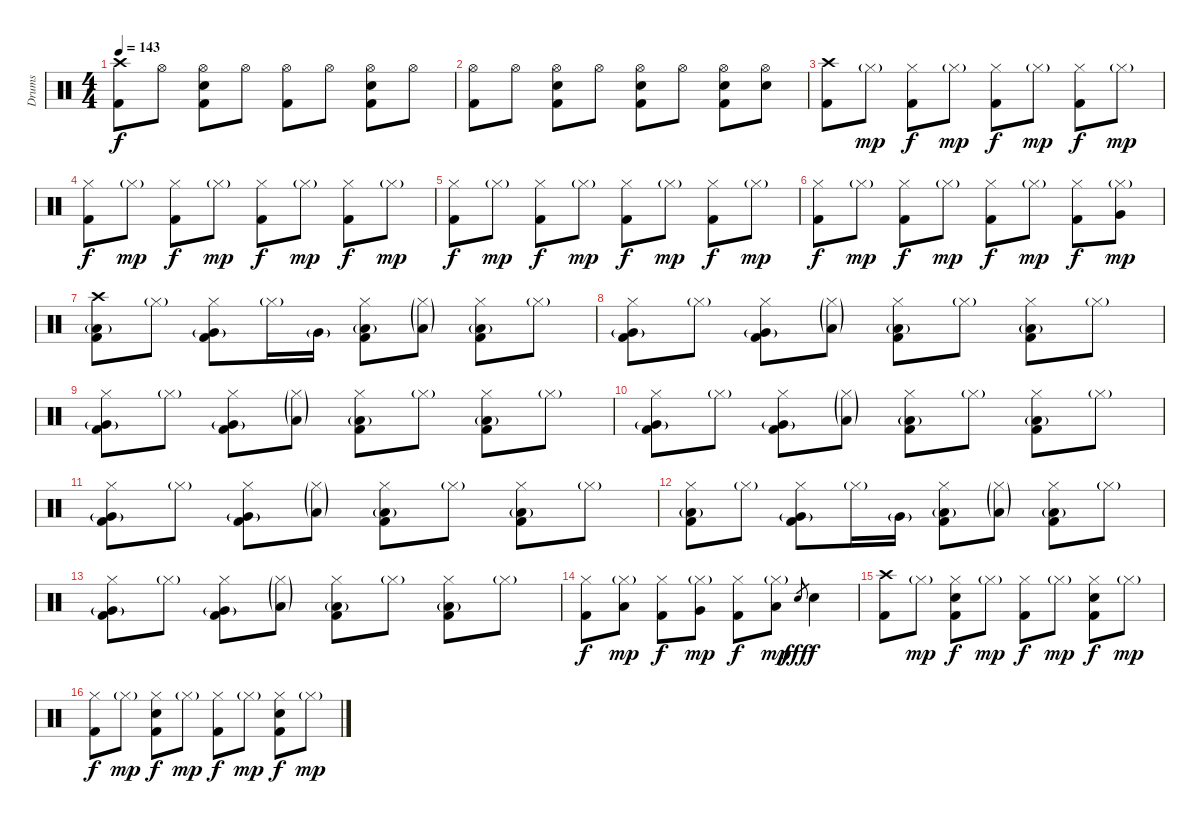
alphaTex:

\track ("Drums" "Drums") {instrument percussion}
\staff {score}
\articulation defaults
\ts (4 4)
\tempo 143
\clef neutral
\ks c
("Crash high (hit)" "Kick (hit) 2").8{dy f} "Hi-Hat (open)".8 ("Hi-Hat (open)" "Electric Snare (hit)" "Kick (hit) 2").8 "Hi-Hat (open)".8 ("Hi-Hat (open)" "Kick (hit) 2").8 "Hi-Hat (open)".8 ("Hi-Hat (open)" "Electric Snare (hit)" "Kick (hit) 2").8 "Hi-Hat (open)".8 |
("Hi-Hat (open)" "Kick (hit) 2").8 "Hi-Hat (open)".8 ("Hi-Hat (open)" "Electric Snare (hit)" "Kick (hit) 2").8 "Hi-Hat (open)".8 ("Hi-Hat (open)" "Electric Snare (hit)" "Kick (hit) 2").8 "Hi-Hat (open)".8 ("Hi-Hat (open)" "Electric Snare (hit)" "Kick (hit) 2").8 ("Hi-Hat (open)" "Electric Snare (hit)").8 |
("Crash high (hit)" "Kick (hit) 2").8 "Hi-Hat (closed)"{g}.8{dy mp} ("Hi-Hat (closed)" "Kick (hit) 2").8{dy f} "Hi-Hat (closed)"{g}.8{dy mp} ("Hi-Hat (closed)" "Kick (hit) 2").8{dy f} "Hi-Hat (closed)"{g}.8{dy mp} ("Hi-Hat (closed)" "Kick (hit) 2").8{dy f} "Hi-Hat (closed)"{g}.8{dy mp} |
("Hi-Hat (closed)" "Kick (hit) 2").8{dy f} "Hi-Hat (closed)"{g}.8{dy mp} ("Hi-Hat (closed)" "Kick (hit) 2").8{dy f} "Hi-Hat (closed)"{g}.8{dy mp} ("Hi-Hat (closed)" "Kick (hit) 2").8{dy f} "Hi-Hat (closed)"{g}.8{dy mp} ("Hi-Hat (closed)" "Kick (hit) 2").8{dy f} "Hi-Hat (closed)"{g}.8{dy mp} |
("Hi-Hat (closed)" "Kick (hit) 2").8{dy f} "Hi-Hat (closed)"{g}.8{dy mp} ("Hi-Hat (closed)" "Kick (hit) 2").8{dy f} "Hi-Hat (closed)"{g}.8{dy mp} ("Hi-Hat (closed)" "Kick (hit) 2").8{dy f} "Hi-Hat (closed)"{g}.8{dy mp} ("Hi-Hat (closed)" "Kick (hit) 2").8{dy f} "Hi-Hat (closed)"{g}.8{dy mp} |
("Hi-Hat (closed)" "Kick (hit) 2").8{dy f} "Hi-Hat (closed)"{g}.8{dy mp} ("Hi-Hat (closed)" "Kick (hit) 2").8{dy f} "Hi-Hat (closed)"{g}.8{dy mp} ("Hi-Hat (closed)" "Kick (hit) 2").8{dy f} "Hi-Hat (closed)"{g}.8{dy mp} ("Hi-Hat (closed)" "Kick (hit) 2").8{dy f} ("Hi-Hat (closed)"{g} "Very Low Tom (hit)").8{dy mp} |
("Crash high (hit)" "Low Floor Tom (hit)"{g} "Kick (hit) 2").8 "Hi-Hat (closed)"{g}.8 ("Hi-Hat (closed)" "Very Low Tom (hit)"{g} "Kick (hit) 2").8 "Hi-Hat (closed)"{g}.16 "Very Low Tom (hit)"{g}.16 ("Hi-Hat (closed)" "Low Floor Tom (hit)"{g} "Kick (hit) 2").8 ("Hi-Hat (closed)"{g} "Low Floor Tom (hit)"{g}).8 ("Hi-Hat (closed)" "Low Floor Tom (hit)"{g} "Kick (hit) 2").8 "Hi-Hat (closed)"{g}.8 |
("Hi-Hat (closed)" "Very Low Tom (hit)"{g} "Kick (hit) 2").8 "Hi-Hat (closed)"{g}.8 ("Hi-Hat (closed)" "Very Low Tom (hit)"{g} "Kick (hit) 2").8 ("Hi-Hat (closed)"{g} "Low Floor Tom (hit)"{g}).8 ("Hi-Hat (closed)" "Low Floor Tom (hit)"{g} "Kick (hit) 2").8 "Hi-Hat (closed)"{g}.8 ("Hi-Hat (closed)" "Low Floor Tom (hit)"{g} "Kick (hit) 2").8 "Hi-Hat (closed)"{g}.8 |
("Hi-Hat (closed)" "Very Low Tom (hit)"{g} "Kick (hit) 2").8 "Hi-Hat (closed)"{g}.8 ("Hi-Hat (closed)" "Very Low Tom (hit)"{g} "Kick (hit) 2").8 ("Hi-Hat (closed)"{g} "Low Floor Tom (hit)"{g}).8 ("Hi-Hat (closed)" "Low Floor Tom (hit)"{g} "Kick (hit) 2").8 "Hi-Hat (closed)"{g}.8 ("Hi-Hat (closed)" "Low Floor Tom (hit)"{g} "Kick (hit) 2").8 "Hi-Hat (closed)"{g}.8 |
("Hi-Hat (closed)" "Very Low Tom (hit)"{g} "Kick (hit) 2").8 "Hi-Hat (closed)"{g}.8 ("Hi-Hat (closed)" "Very Low Tom (hit)"{g} "Kick (hit) 2").8 ("Hi-Hat (closed)"{g} "Low Floor Tom (hit)"{g}).8 ("Hi-Hat (closed)" "Low Floor Tom (hit)"{g} "Kick (hit) 2").8 "Hi-Hat (closed)"{g}.8 ("Hi-Hat (closed)" "Low Floor Tom (hit)"{g} "Kick (hit) 2").8 "Hi-Hat (closed)"{g}.8 |
("Hi-Hat (closed)" "Very Low Tom (hit)"{g} "Kick (hit) 2").8 "Hi-Hat (closed)"{g}.8 ("Hi-Hat (closed)" "Very Low Tom (hit)"{g} "Kick (hit) 2").8 ("Hi-Hat (closed)"{g} "Low Floor Tom (hit)"{g}).8 ("Hi-Hat (closed)" "Low Floor Tom (hit)"{g} "Kick (hit) 2").8 "Hi-Hat (closed)"{g}.8 ("Hi-Hat (closed)" "Low Floor Tom (hit)"{g} "Kick (hit) 2").8 "Hi-Hat (closed)"{g}.8 |
("Hi-Hat (closed)" "Low Floor Tom (hit)"{g} "Kick (hit) 2").8 "Hi-Hat (closed)"{g}.8 ("Hi-Hat (closed)" "Very Low Tom (hit)"{g} "Kick (hit) 2").8 "Hi-Hat (closed)"{g}.16 "Very Low Tom (hit)"{g}.16 ("Hi-Hat (closed)" "Low Floor Tom (hit)"{g} "Kick (hit) 2").8 ("Hi-Hat (closed)"{g} "Low Floor Tom (hit)"{g}).8 ("Hi-Hat (closed)" "Low Floor Tom (hit)"{g} "Kick (hit) 2").8 "Hi-Hat (closed)"{g}.8 |
("Hi-Hat (closed)" "Very Low Tom (hit)"{g} "Kick (hit) 2").8 "Hi-Hat (closed)"{g}.8 ("Hi-Hat (closed)" "Very Low Tom (hit)"{g} "Kick (hit) 2").8 ("Hi-Hat (closed)"{g} "Low Floor Tom (hit)"{g}).8 ("Hi-Hat (closed)" "Low Floor Tom (hit)"{g} "Kick (hit) 2").8 "Hi-Hat (closed)"{g}.8 ("Hi-Hat (closed)" "Low Floor Tom (hit)"{g} "Kick (hit) 2").8 "Hi-Hat (closed)"{g}.8 |
("Hi-Hat (closed)" "Kick (hit) 2").8{dy f} ("Hi-Hat (closed)"{g} "Low Tom (hit)").8{dy mp} ("Hi-Hat (closed)" "Kick (hit) 2").8{dy f} ("Hi-Hat (closed)"{g} "Very Low Tom (hit)").8{dy mp} ("Hi-Hat (closed)" "Kick (hit) 2").8{dy f} ("Hi-Hat (closed)"{g} "Low Floor Tom (hit)").8{dy mp} "Electric Snare (hit)".8{gr dy fff} "Electric Snare (hit)".4{dy f} |
("Crash high (hit)" "Kick (hit) 2").8 "Hi-Hat (closed)"{g}.8{dy mp} ("Hi-Hat (closed)" "Electric Snare (hit)" "Kick (hit) 2").8{dy f} "Hi-Hat (closed)"{g}.8{dy mp} ("Hi-Hat (closed)" "Kick (hit) 2").8{dy f} "Hi-Hat (closed)"{g}.8{dy mp} ("Hi-Hat (closed)" "Electric Snare (hit)" "Kick (hit) 2").8{dy f} "Hi-Hat (closed)"{g}.8{dy mp} |
("Hi-Hat (closed)" "Kick (hit) 2").8{dy f} "Hi-Hat (closed)"{g}.8{dy mp} ("Hi-Hat (closed)" "Electric Snare (hit)" "Kick (hit) 2").8{dy f} "Hi-Hat (closed)"{g}.8{dy mp} ("Hi-Hat (closed)" "Kick (hit) 2").8{dy f} "Hi-Hat (closed)"{g}.8{dy mp} ("Hi-Hat (closed)" "Electric Snare (hit)" "Kick (hit) 2").8{dy f} "Hi-Hat (closed)"{g}.8{dy mp}
